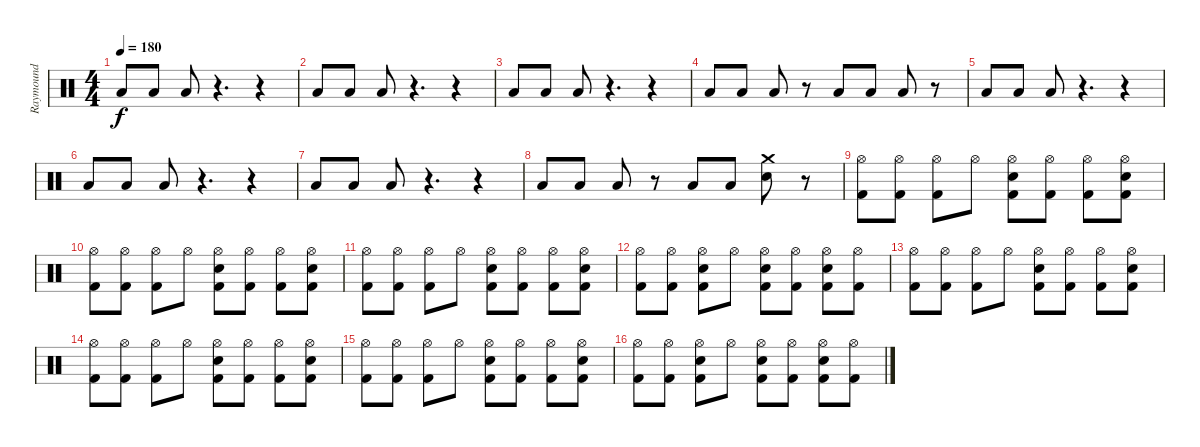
\track ("Raymound " "Raymound ") {instrument percussion}
\staff {score}
\articulation defaults
\ts (4 4)
\tempo 180
\clef neutral
\ks c "Low Floor Tom (hit)".8{dy f} "Low Floor Tom (hit)".8 "Low Floor Tom (hit)".8
r.4{d} r.4 |
"Low Floor Tom (hit)".8 "Low Floor Tom (hit)".8 "Low Floor Tom (hit)".8 r.4{d} r.4 |
"Low Floor Tom (hit)".8 "Low Floor Tom (hit)".8 "Low Floor Tom (hit)".8 r.4{d} r.4 |
"Low Floor Tom (hit)".8 "Low Floor Tom (hit)".8 "Low Floor Tom (hit)".8 r.8 "Low Floor Tom (hit)".8 "Low Floor Tom (hit)".8 "Low Floor Tom (hit)".8 r.8 |
"Low Floor Tom (hit)".8 "Low Floor Tom (hit)".8 "Low Floor Tom (hit)".8 r.4{d} r.4 |
"Low Floor Tom (hit)".8 "Low Floor Tom (hit)".8 "Low Floor Tom (hit)".8 r.4{d} r.4 |
"Low Floor Tom (hit)".8 "Low Floor Tom (hit)".8 "Low Floor Tom (hit)".8 r.4{d} r.4 |
"Low Floor Tom (hit)".8 "Low Floor Tom (hit)".8 "Low Floor Tom (hit)".8 r.8 "Low Floor Tom (hit)".8 "Low Floor Tom (hit)".8 ("Crash medium (hit)" "Electric Snare (hit)").8 r.8 |
("Hi-Hat (open)" "Kick (hit) 2").8 ("Hi-Hat (open)" "Kick (hit) 2").8 ("Hi-Hat (open)" "Kick (hit) 2").8 "Hi-Hat (open)".8 ("Hi-Hat (open)" "Electric Snare (hit)" "Kick (hit) 2").8 ("Hi-Hat (open)" "Kick (hit) 2").8 ("Hi-Hat (open)" "Kick (hit) 2").8 ("Hi-Hat (open)" "Electric Snare (hit)" "Kick (hit) 2").8 |
("Hi-Hat (open)" "Kick (hit) 2").8 ("Hi-Hat (open)" "Kick (hit) 2").8 ("Hi-Hat (open)" "Kick (hit) 2").8 "Hi-Hat (open)".8 ("Hi-Hat (open)" "Electric Snare (hit)" "Kick (hit) 2").8 ("Hi-Hat (open)" "Kick (hit) 2").8 ("Hi-Hat (open)" "Kick (hit) 2").8 ("Hi-Hat (open)" "Electric Snare (hit)" "Kick (hit) 2").8 |
("Hi-Hat (open)" "Kick (hit) 2").8 ("Hi-Hat (open)" "Kick (hit) 2").8 ("Hi-Hat (open)" "Kick (hit) 2").8 "Hi-Hat (open)".8 ("Hi-Hat (open)" "Electric Snare (hit)" "Kick (hit) 2").8 ("Hi-Hat (open)" "Kick (hit) 2").8 ("Hi-Hat (open)" "Kick (hit) 2").8 ("Hi-Hat (open)" "Electric Snare (hit)" "Kick (hit) 2").8 |
("Hi-Hat (open)" "Kick (hit) 2").8 ("Hi-Hat (open)" "Kick (hit) 2").8 ("Hi-Hat (open)" "Electric Snare (hit)" "Kick (hit) 2").8 "Hi-Hat (open)".8 ("Hi-Hat (open)" "Electric Snare (hit)" "Kick (hit) 2").8 ("Hi-Hat (open)" "Kick (hit) 2").8 ("Hi-Hat (open)" "Electric Snare (hit)" "Kick (hit) 2").8 ("Hi-Hat (open)" "Kick (hit) 2").8 |
("Hi-Hat (open)" "Kick (hit) 2").8 ("Hi-Hat (open)" "Kick (hit) 2").8 ("Hi-Hat (open)" "Kick (hit) 2").8 "Hi-Hat (open)".8 ("Hi-Hat (open)" "Electric Snare (hit)" "Kick (hit) 2").8 ("Hi-Hat (open)" "Kick (hit) 2").8 ("Hi-Hat (open)" "Kick (hit) 2").8 ("Hi-Hat (open)" "Electric Snare (hit)" "Kick (hit) 2").8 |
("Hi-Hat (open)" "Kick (hit) 2").8 ("Hi-Hat (open)" "Kick (hit) 2").8 ("Hi-Hat (open)" "Kick (hit) 2").8 "Hi-Hat (open)".8 ("Hi-Hat (open)" "Electric Snare (hit)" "Kick (hit) 2").8 ("Hi-Hat (open)" "Kick (hit) 2").8 ("Hi-Hat (open)" "Kick (hit) 2").8 ("Hi-Hat (open)" "Electric Snare (hit)" "Kick (hit) 2").8 |
("Hi-Hat (open)" "Kick (hit) 2").8 ("Hi-Hat (open)" "Kick (hit) 2").8 ("Hi-Hat (open)" "Kick (hit) 2").8 "Hi-Hat (open)".8 ("Hi-Hat (open)" "Electric Snare (hit)" "Kick (hit) 2").8 ("Hi-Hat (open)" "Kick (hit) 2").8 ("Hi-Hat (open)" "Kick (hit) 2").8 ("Hi-Hat (open)" "Electric Snare (hit)" "Kick (hit) 2").8 |
("Hi-Hat (open)" "Kick (hit) 2").8 ("Hi-Hat (open)" "Kick (hit) 2").8 ("Hi-Hat (open)" "Electric Snare (hit)" "Kick (hit) 2").8 "Hi-Hat (open)".8 ("Hi-Hat (open)" "Electric Snare (hit)" "Kick (hit) 2").8 ("Hi-Hat (open)" "Kick (hit) 2").8 ("Hi-Hat (open)" "Electric Snare (hit)" "Kick (hit) 2").8 ("Hi-Hat (open)" "Kick (hit) 2").8
